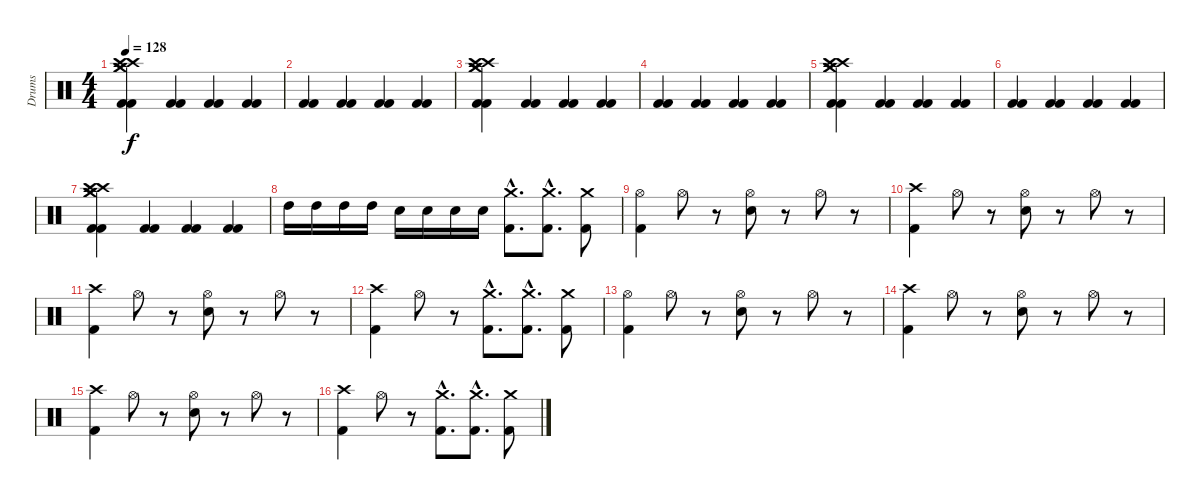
\track ("Drums" "Drums") {instrument percussion}
\staff {score}
\articulation defaults
\ts (4 4)
\tempo 128
\clef neutral
\ks c
("Crash high (hit)" "Crash high (hit)" "Crash medium (hit)" "Crash medium (hit)" "Kick (hit) 2" "Kick (hit) 2").4{dy f} ("Kick (hit) 2" "Kick (hit) 2").4 ("Kick (hit) 2" "Kick (hit) 2").4 ("Kick (hit) 2" "Kick (hit) 2").4 |
("Kick (hit) 2" "Kick (hit) 2").4 ("Kick (hit) 2" "Kick (hit) 2").4 ("Kick (hit) 2" "Kick (hit) 2").4 ("Kick (hit) 2" "Kick (hit) 2").4 |
("Crash high (hit)" "Crash high (hit)" "Crash medium (hit)" "Crash medium (hit)" "Kick (hit) 2" "Kick (hit) 2").4 ("Kick (hit) 2" "Kick (hit) 2").4 ("Kick (hit) 2" "Kick (hit) 2").4 ("Kick (hit) 2" "Kick (hit) 2").4 |
("Kick (hit) 2" "Kick (hit) 2").4 ("Kick (hit) 2" "Kick (hit) 2").4 ("Kick (hit) 2" "Kick (hit) 2").4 ("Kick (hit) 2" "Kick (hit) 2").4 |
("Crash high (hit)" "Crash high (hit)" "Crash medium (hit)" "Crash medium (hit)" "Kick (hit) 2" "Kick (hit) 2").4 ("Kick (hit) 2" "Kick (hit) 2").4 ("Kick (hit) 2" "Kick (hit) 2").4 ("Kick (hit) 2" "Kick (hit) 2").4 |
("Kick (hit) 2" "Kick (hit) 2").4 ("Kick (hit) 2" "Kick (hit) 2").4 ("Kick (hit) 2" "Kick (hit) 2").4 ("Kick (hit) 2" "Kick (hit) 2").4 |
("Crash high (hit)" "Crash high (hit)" "Crash medium (hit)" "Crash medium (hit)" "Kick (hit) 2" "Kick (hit) 2").4 ("Kick (hit) 2" "Kick (hit) 2").4 ("Kick (hit) 2" "Kick (hit) 2").4 ("Kick (hit) 2" "Kick (hit) 2").4 |
"High Tom (hit)".16 "High Tom (hit)".16 "High Tom (hit)".16 "High Tom (hit)".16 "Snare (hit) 2".16 "Snare (hit) 2".16 "Snare (hit) 2".16 "Snare (hit) 2".16 ("Crash medium (hit)"{hac} "Kick (hit) 2"{hac}).8{d} ("Crash medium (hit)"{hac} "Kick (hit) 2"{hac}).8{d} ("Crash medium (hit)" "Kick (hit) 2").8 |
("Hi-Hat (open)" "Kick (hit) 2").4 "Hi-Hat (open)".8 r.8 ("Hi-Hat (open)" "Snare (hit) 2").8 r.8 "Hi-Hat (open)".8 r.8 |
("Crash high (hit)" "Kick (hit) 2").4 "Hi-Hat (open)".8 r.8 ("Hi-Hat (open)" "Snare (hit) 2").8 r.8 "Hi-Hat (open)".8 r.8 |
("Crash high (hit)" "Kick (hit) 2").4 "Hi-Hat (open)".8 r.8 ("Hi-Hat (open)" "Snare (hit) 2").8 r.8 "Hi-Hat (open)".8 r.8 |
("Crash high (hit)" "Kick (hit) 2").4 "Hi-Hat (open)".8 r.8 ("Crash medium (hit)"{hac} "Kick (hit) 2"{hac}).8{d} ("Crash medium (hit)"{hac} "Kick (hit) 2"{hac}).8{d} ("Crash medium (hit)" "Kick (hit) 2").8 |
("Hi-Hat (open)" "Kick (hit) 2").4 "Hi-Hat (open)".8 r.8 ("Hi-Hat (open)" "Snare (hit) 2").8 r.8 "Hi-Hat (open)".8 r.8 |
("Crash high (hit)" "Kick (hit) 2").4 "Hi-Hat (open)".8 r.8 ("Hi-Hat (open)" "Snare (hit) 2").8 r.8 "Hi-Hat (open)".8 r.8 |
("Crash high (hit)" "Kick (hit) 2").4 "Hi-Hat (open)".8 r.8 ("Hi-Hat (open)" "Snare (hit) 2").8 r.8 "Hi-Hat (open)".8 r.8 |
("Crash high (hit)" "Kick (hit) 2").4 "Hi-Hat (open)".8 r.8 ("Crash medium (hit)"{hac} "Kick (hit) 2"{hac}).8{d} ("Crash medium (hit)"{hac} "Kick (hit) 2"{hac}).8{d} ("Crash medium (hit)" "Kick (hit) 2").8
